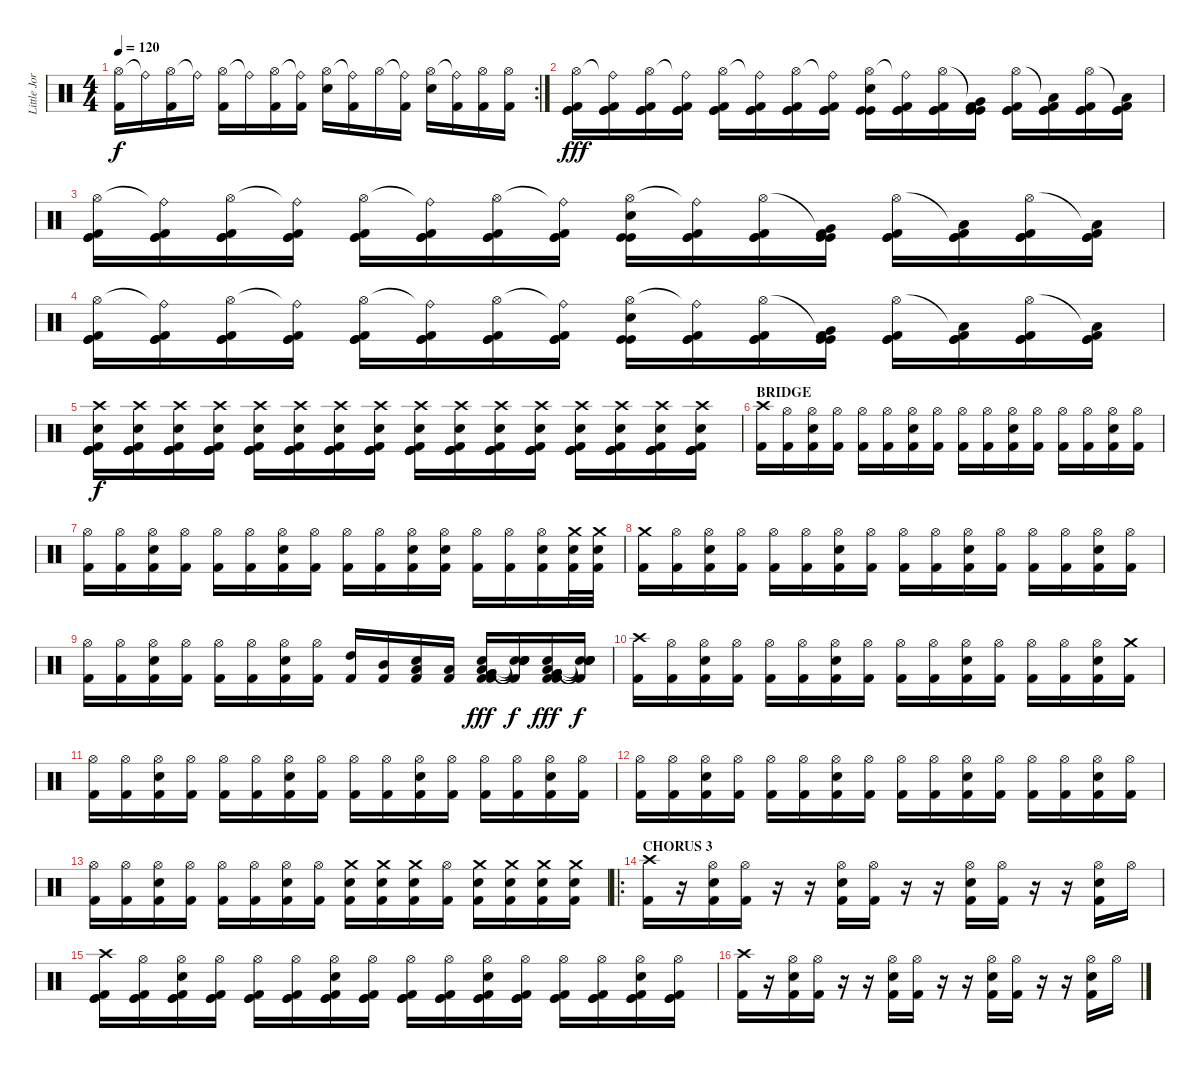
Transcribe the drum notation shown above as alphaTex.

\track ("Little Jordison" "Little Jor") {instrument percussion}
\staff {score}
\articulation defaults
\rc 2
\ts (4 4)
\tempo 120
\clef neutral
\ks c
("Hi-Hat (open)" "Kick (hit) 2").16{dy f} "Ride (bell)"{t}.16 ("Hi-Hat (open)" "Kick (hit) 2").16 "Ride (bell)"{t}.16 ("Hi-Hat (open)" "Kick (hit) 2").16 "Ride (bell)"{t}.16 ("Hi-Hat (open)" "Kick (hit) 2").16 ("Ride (bell)"{t} "Kick (hit) 2").16 ("Hi-Hat (open)" "Electric Snare (hit)").16 ("Ride (bell)"{t} "Kick (hit) 2").16 "Hi-Hat (open)".16 ("Ride (bell)"{t} "Kick (hit) 2").16 ("Hi-Hat (open)" "Electric Snare (hit)").16 ("Ride (bell)"{t} "Kick (hit) 2").16 ("Hi-Hat (open)" "Kick (hit) 2").16 ("Hi-Hat (open)" "Kick (hit) 2").16 |
("Kick (hit)" "Kick (hit)" "Hi-Hat (open)" "Kick (hit) 2").16{dy fff} ("Kick (hit)" "Kick (hit)" "Ride (bell)"{t} "Kick (hit) 2").16 ("Kick (hit)" "Kick (hit)" "Hi-Hat (open)" "Kick (hit) 2").16 ("Kick (hit)" "Kick (hit)" "Ride (bell)"{t} "Kick (hit) 2").16 ("Kick (hit)" "Kick (hit)" "Hi-Hat (open)" "Kick (hit) 2").16 ("Kick (hit)" "Kick (hit)" "Ride (bell)"{t} "Kick (hit) 2").16 ("Kick (hit)" "Kick (hit)" "Hi-Hat (open)" "Kick (hit) 2").16 ("Kick (hit)" "Kick (hit)" "Ride (bell)"{t} "Kick (hit) 2").16 ("Kick (hit)" "Kick (hit)" "Hi-Hat (open)" "Electric Snare (hit)").16 ("Kick (hit)" "Kick (hit)" "Ride (bell)"{t} "Kick (hit) 2").16 ("Kick (hit)" "Kick (hit)" "Hi-Hat (open)" "Kick (hit) 2").16 ("Kick (hit)" "Kick (hit)" "Very Low Tom (hit)"{t} "Kick (hit) 2").16 ("Kick (hit)" "Kick (hit)" "Hi-Hat (open)" "Kick (hit) 2").16 ("Kick (hit)" "Kick (hit)" "Low Tom (hit)"{t} "Kick (hit) 2").16 ("Kick (hit)" "Kick (hit)" "Hi-Hat (open)" "Kick (hit) 2").16 ("Kick (hit)" "Kick (hit)" "Low Floor Tom (hit)"{t} "Kick (hit) 2").16 |
("Kick (hit)" "Kick (hit)" "Hi-Hat (open)" "Kick (hit) 2").16 ("Kick (hit)" "Kick (hit)" "Ride (bell)"{t} "Kick (hit) 2").16 ("Kick (hit)" "Kick (hit)" "Hi-Hat (open)" "Kick (hit) 2").16 ("Kick (hit)" "Kick (hit)" "Ride (bell)"{t} "Kick (hit) 2").16 ("Kick (hit)" "Kick (hit)" "Hi-Hat (open)" "Kick (hit) 2").16 ("Kick (hit)" "Kick (hit)" "Ride (bell)"{t} "Kick (hit) 2").16 ("Kick (hit)" "Kick (hit)" "Hi-Hat (open)" "Kick (hit) 2").16 ("Kick (hit)" "Kick (hit)" "Ride (bell)"{t} "Kick (hit) 2").16 ("Kick (hit)" "Kick (hit)" "Hi-Hat (open)" "Electric Snare (hit)").16 ("Kick (hit)" "Kick (hit)" "Ride (bell)"{t} "Kick (hit) 2").16 ("Kick (hit)" "Kick (hit)" "Hi-Hat (open)" "Kick (hit) 2").16 ("Kick (hit)" "Kick (hit)" "Very Low Tom (hit)"{t} "Kick (hit) 2").16 ("Kick (hit)" "Kick (hit)" "Hi-Hat (open)" "Kick (hit) 2").16 ("Kick (hit)" "Kick (hit)" "Low Tom (hit)"{t} "Kick (hit) 2").16 ("Kick (hit)" "Kick (hit)" "Hi-Hat (open)" "Kick (hit) 2").16 ("Kick (hit)" "Kick (hit)" "Low Floor Tom (hit)"{t} "Kick (hit) 2").16 |
("Kick (hit)" "Kick (hit)" "Hi-Hat (open)" "Kick (hit) 2").16 ("Kick (hit)" "Kick (hit)" "Ride (bell)"{t} "Kick (hit) 2").16 ("Kick (hit)" "Kick (hit)" "Hi-Hat (open)" "Kick (hit) 2").16 ("Kick (hit)" "Kick (hit)" "Ride (bell)"{t} "Kick (hit) 2").16 ("Kick (hit)" "Kick (hit)" "Hi-Hat (open)" "Kick (hit) 2").16 ("Kick (hit)" "Kick (hit)" "Ride (bell)"{t} "Kick (hit) 2").16 ("Kick (hit)" "Kick (hit)" "Hi-Hat (open)" "Kick (hit) 2").16 ("Kick (hit)" "Kick (hit)" "Ride (bell)"{t} "Kick (hit) 2").16 ("Kick (hit)" "Kick (hit)" "Hi-Hat (open)" "Electric Snare (hit)").16 ("Kick (hit)" "Kick (hit)" "Ride (bell)"{t} "Kick (hit) 2").16 ("Kick (hit)" "Kick (hit)" "Hi-Hat (open)" "Kick (hit) 2").16 ("Kick (hit)" "Kick (hit)" "Very Low Tom (hit)"{t} "Kick (hit) 2").16 ("Kick (hit)" "Kick (hit)" "Hi-Hat (open)" "Kick (hit) 2").16 ("Kick (hit)" "Kick (hit)" "Low Tom (hit)"{t} "Kick (hit) 2").16 ("Kick (hit)" "Kick (hit)" "Hi-Hat (open)" "Kick (hit) 2").16 ("Kick (hit)" "Kick (hit)" "Low Floor Tom (hit)"{t} "Kick (hit) 2").16 |
("Kick (hit)" "Kick (hit)" "Kick (hit)" "Crash high (hit)" "Kick (hit) 2" "Electric Snare (hit)").16{dy f} ("Kick (hit)" "Kick (hit)" "Kick (hit)" "Crash high (hit)" "Kick (hit) 2" "Electric Snare (hit)").16 ("Kick (hit)" "Kick (hit)" "Kick (hit)" "Crash high (hit)" "Kick (hit) 2" "Electric Snare (hit)").16 ("Kick (hit)" "Kick (hit)" "Kick (hit)" "Crash high (hit)" "Kick (hit) 2" "Electric Snare (hit)").16 ("Kick (hit)" "Kick (hit)" "Kick (hit)" "Crash high (hit)" "Kick (hit) 2" "Electric Snare (hit)").16 ("Kick (hit)" "Kick (hit)" "Kick (hit)" "Crash high (hit)" "Kick (hit) 2" "Electric Snare (hit)").16 ("Kick (hit)" "Kick (hit)" "Kick (hit)" "Crash high (hit)" "Kick (hit) 2" "Electric Snare (hit)").16 ("Kick (hit)" "Kick (hit)" "Kick (hit)" "Crash high (hit)" "Kick (hit) 2" "Electric Snare (hit)").16 ("Kick (hit)" "Kick (hit)" "Kick (hit)" "Crash high (hit)" "Kick (hit) 2" "Electric Snare (hit)").16 ("Kick (hit)" "Kick (hit)" "Kick (hit)" "Crash high (hit)" "Kick (hit) 2" "Electric Snare (hit)").16 ("Kick (hit)" "Kick (hit)" "Kick (hit)" "Crash high (hit)" "Kick (hit) 2" "Electric Snare (hit)").16 ("Kick (hit)" "Kick (hit)" "Kick (hit)" "Crash high (hit)" "Kick (hit) 2" "Electric Snare (hit)").16 ("Kick (hit)" "Kick (hit)" "Kick (hit)" "Crash high (hit)" "Kick (hit) 2" "Electric Snare (hit)").16 ("Kick (hit)" "Kick (hit)" "Kick (hit)" "Crash high (hit)" "Kick (hit) 2" "Electric Snare (hit)").16 ("Kick (hit)" "Kick (hit)" "Kick (hit)" "Crash high (hit)" "Kick (hit) 2" "Electric Snare (hit)").16 ("Kick (hit)" "Kick (hit)" "Kick (hit)" "Crash high (hit)" "Kick (hit) 2" "Electric Snare (hit)").16 |
\section ("" "BRIDGE")
("Crash high (hit)" "Kick (hit) 2").16 ("Hi-Hat (open)" "Kick (hit) 2").16 ("Hi-Hat (open)" "Electric Snare (hit)" "Kick (hit) 2").16 ("Hi-Hat (open)" "Kick (hit) 2").16 ("Hi-Hat (open)" "Kick (hit) 2").16 ("Hi-Hat (open)" "Kick (hit) 2").16 ("Hi-Hat (open)" "Electric Snare (hit)" "Kick (hit) 2").16 ("Hi-Hat (open)" "Kick (hit) 2").16 ("Hi-Hat (open)" "Kick (hit) 2").16 ("Hi-Hat (open)" "Kick (hit) 2").16 ("Hi-Hat (open)" "Electric Snare (hit)" "Kick (hit) 2").16 ("Hi-Hat (open)" "Kick (hit) 2").16 ("Hi-Hat (open)" "Kick (hit) 2").16 ("Hi-Hat (open)" "Kick (hit) 2").16 ("Hi-Hat (open)" "Electric Snare (hit)" "Kick (hit) 2").16 ("Hi-Hat (open)" "Kick (hit) 2").16 |
("Hi-Hat (open)" "Kick (hit) 2").16 ("Hi-Hat (open)" "Kick (hit) 2").16 ("Hi-Hat (open)" "Electric Snare (hit)" "Kick (hit) 2").16 ("Hi-Hat (open)" "Kick (hit) 2").16 ("Hi-Hat (open)" "Kick (hit) 2").16 ("Hi-Hat (open)" "Kick (hit) 2").16 ("Hi-Hat (open)" "Electric Snare (hit)" "Kick (hit) 2").16 ("Hi-Hat (open)" "Kick (hit) 2").16 ("Hi-Hat (open)" "Kick (hit) 2").16 ("Hi-Hat (open)" "Kick (hit) 2").16 ("Hi-Hat (open)" "Electric Snare (hit)" "Kick (hit) 2").16 ("Hi-Hat (open)" "Electric Snare (hit)" "Kick (hit) 2").16 ("Hi-Hat (open)" "Kick (hit) 2").16 ("Hi-Hat (open)" "Kick (hit) 2").16 ("Hi-Hat (open)" "Electric Snare (hit)" "Kick (hit) 2").16 ("Crash medium (hit)" "Electric Snare (hit)" "Kick (hit) 2").32 ("Crash medium (hit)" "Electric Snare (hit)" "Kick (hit) 2").32 |
("Crash medium (hit)" "Kick (hit) 2").16 ("Hi-Hat (open)" "Kick (hit) 2").16 ("Hi-Hat (open)" "Electric Snare (hit)" "Kick (hit) 2").16 ("Hi-Hat (open)" "Kick (hit) 2").16 ("Hi-Hat (open)" "Kick (hit) 2").16 ("Hi-Hat (open)" "Kick (hit) 2").16 ("Hi-Hat (open)" "Electric Snare (hit)" "Kick (hit) 2").16 ("Hi-Hat (open)" "Kick (hit) 2").16 ("Hi-Hat (open)" "Kick (hit) 2").16 ("Hi-Hat (open)" "Kick (hit) 2").16 ("Hi-Hat (open)" "Electric Snare (hit)" "Kick (hit) 2").16 ("Hi-Hat (open)" "Kick (hit) 2").16 ("Hi-Hat (open)" "Kick (hit) 2").16 ("Hi-Hat (open)" "Kick (hit) 2").16 ("Hi-Hat (open)" "Electric Snare (hit)" "Kick (hit) 2").16 ("Hi-Hat (open)" "Kick (hit) 2").16 |
("Hi-Hat (open)" "Kick (hit) 2").16 ("Hi-Hat (open)" "Kick (hit) 2").16 ("Hi-Hat (open)" "Electric Snare (hit)" "Kick (hit) 2").16 ("Hi-Hat (open)" "Kick (hit) 2").16 ("Hi-Hat (open)" "Kick (hit) 2").16 ("Hi-Hat (open)" "Kick (hit) 2").16 ("Hi-Hat (open)" "Electric Snare (hit)" "Kick (hit) 2").16 ("Hi-Hat (open)" "Kick (hit) 2").16 ("High Tom (hit)" "Kick (hit) 2").16 ("Mid Tom (hit)" "Kick (hit) 2").16 ("Low Tom (hit)" "Electric Snare (hit)" "Kick (hit) 2").16 ("Low Tom (hit)" "Kick (hit) 2").16 ("Kick (hit) 2" "Very Low Tom (hit)" "Low Tom (hit)" "Very Low Tom (hit)" "Electric Snare (hit)" "Kick (hit) 2").16{dy fff} ("Snare (hit)"{t} "Snare (hit)"{t} "Snare (hit)"{t} "Snare (hit)"{t} "Kick (hit) 2"{t}).16{dy f} ("Kick (hit) 2" "Very Low Tom (hit)" "Low Tom (hit)" "Very Low Tom (hit)" "Electric Snare (hit)" "Kick (hit) 2").16{dy fff} ("Snare (hit)"{t} "Snare (hit)"{t} "Snare (hit)"{t} "Snare (hit)"{t} "Kick (hit) 2"{t}).16{dy f} |
("Crash high (hit)" "Kick (hit) 2").16 ("Hi-Hat (open)" "Kick (hit) 2").16 ("Hi-Hat (open)" "Electric Snare (hit)" "Kick (hit) 2").16 ("Hi-Hat (open)" "Kick (hit) 2").16 ("Hi-Hat (open)" "Kick (hit) 2").16 ("Hi-Hat (open)" "Kick (hit) 2").16 ("Hi-Hat (open)" "Electric Snare (hit)" "Kick (hit) 2").16 ("Hi-Hat (open)" "Kick (hit) 2").16 ("Hi-Hat (open)" "Kick (hit) 2").16 ("Hi-Hat (open)" "Kick (hit) 2").16 ("Hi-Hat (open)" "Electric Snare (hit)" "Kick (hit) 2").16 ("Hi-Hat (open)" "Kick (hit) 2").16 ("Hi-Hat (open)" "Kick (hit) 2").16 ("Hi-Hat (open)" "Kick (hit) 2").16 ("Hi-Hat (open)" "Electric Snare (hit)" "Kick (hit) 2").16 ("Crash medium (hit)" "Kick (hit) 2").16 |
("Hi-Hat (open)" "Kick (hit) 2").16 ("Hi-Hat (open)" "Kick (hit) 2").16 ("Hi-Hat (open)" "Electric Snare (hit)" "Kick (hit) 2").16 ("Hi-Hat (open)" "Kick (hit) 2").16 ("Hi-Hat (open)" "Kick (hit) 2").16 ("Hi-Hat (open)" "Kick (hit) 2").16 ("Hi-Hat (open)" "Electric Snare (hit)" "Kick (hit) 2").16 ("Hi-Hat (open)" "Kick (hit) 2").16 ("Hi-Hat (open)" "Kick (hit) 2").16 ("Hi-Hat (open)" "Kick (hit) 2").16 ("Hi-Hat (open)" "Electric Snare (hit)" "Kick (hit) 2").16 ("Hi-Hat (open)" "Kick (hit) 2").16 ("Hi-Hat (open)" "Kick (hit) 2").16 ("Hi-Hat (open)" "Kick (hit) 2").16 ("Hi-Hat (open)" "Electric Snare (hit)" "Kick (hit) 2").16 ("Hi-Hat (open)" "Kick (hit) 2").16 |
("Hi-Hat (open)" "Kick (hit) 2").16 ("Hi-Hat (open)" "Kick (hit) 2").16 ("Hi-Hat (open)" "Electric Snare (hit)" "Kick (hit) 2").16 ("Hi-Hat (open)" "Kick (hit) 2").16 ("Hi-Hat (open)" "Kick (hit) 2").16 ("Hi-Hat (open)" "Kick (hit) 2").16 ("Hi-Hat (open)" "Electric Snare (hit)" "Kick (hit) 2").16 ("Hi-Hat (open)" "Kick (hit) 2").16 ("Hi-Hat (open)" "Kick (hit) 2").16 ("Hi-Hat (open)" "Kick (hit) 2").16 ("Hi-Hat (open)" "Electric Snare (hit)" "Kick (hit) 2").16 ("Hi-Hat (open)" "Kick (hit) 2").16 ("Hi-Hat (open)" "Kick (hit) 2").16 ("Hi-Hat (open)" "Kick (hit) 2").16 ("Hi-Hat (open)" "Electric Snare (hit)" "Kick (hit) 2").16 ("Hi-Hat (open)" "Kick (hit) 2").16 |
("Hi-Hat (open)" "Kick (hit) 2").16 ("Hi-Hat (open)" "Kick (hit) 2").16 ("Hi-Hat (open)" "Electric Snare (hit)" "Kick (hit) 2").16 ("Hi-Hat (open)" "Kick (hit) 2").16 ("Hi-Hat (open)" "Kick (hit) 2").16 ("Hi-Hat (open)" "Kick (hit) 2").16 ("Hi-Hat (open)" "Electric Snare (hit)" "Kick (hit) 2").16 ("Hi-Hat (open)" "Kick (hit) 2").16 ("Crash medium (hit)" "Electric Snare (hit)" "Kick (hit) 2").16 ("Crash medium (hit)" "Electric Snare (hit)" "Kick (hit) 2").16 ("Crash medium (hit)" "Electric Snare (hit)" "Kick (hit) 2").16 ("Hi-Hat (open)" "Kick (hit) 2").16 ("Crash medium (hit)" "Electric Snare (hit)" "Kick (hit) 2").16 ("Crash medium (hit)" "Electric Snare (hit)" "Kick (hit) 2").16 ("Crash medium (hit)" "Electric Snare (hit)" "Kick (hit) 2").16 ("Crash medium (hit)" "Electric Snare (hit)" "Kick (hit) 2").16 |
\ro
\section ("" "CHORUS 3")
("Crash high (hit)" "Kick (hit) 2").16 r.16 ("Hi-Hat (open)" "Electric Snare (hit)" "Kick (hit) 2").16 ("Hi-Hat (open)" "Kick (hit) 2").16 r.16 r.16 ("Hi-Hat (open)" "Electric Snare (hit)" "Kick (hit) 2").16 ("Hi-Hat (open)" "Kick (hit) 2").16 r.16 r.16 ("Hi-Hat (open)" "Electric Snare (hit)" "Kick (hit) 2").16 ("Hi-Hat (open)" "Kick (hit) 2").16 r.16 r.16 ("Hi-Hat (open)" "Electric Snare (hit)" "Kick (hit) 2").16 "Hi-Hat (open)".16 |
("Crash high (hit)" "Kick (hit)" "Kick (hit)" "Kick (hit) 2").16 ("Hi-Hat (open)" "Kick (hit)" "Kick (hit)" "Kick (hit) 2").16 ("Hi-Hat (open)" "Kick (hit)" "Kick (hit)" "Electric Snare (hit)" "Kick (hit) 2").16 ("Hi-Hat (open)" "Kick (hit)" "Kick (hit)" "Kick (hit) 2").16 ("Hi-Hat (open)" "Kick (hit)" "Kick (hit)" "Kick (hit) 2").16 ("Hi-Hat (open)" "Kick (hit)" "Kick (hit)" "Kick (hit) 2").16 ("Hi-Hat (open)" "Kick (hit)" "Kick (hit)" "Electric Snare (hit)" "Kick (hit) 2").16 ("Hi-Hat (open)" "Kick (hit)" "Kick (hit)" "Kick (hit) 2").16 ("Hi-Hat (open)" "Kick (hit)" "Kick (hit)" "Kick (hit) 2").16 ("Hi-Hat (open)" "Kick (hit)" "Kick (hit)" "Kick (hit) 2").16 ("Hi-Hat (open)" "Kick (hit)" "Kick (hit)" "Electric Snare (hit)" "Kick (hit) 2").16 ("Hi-Hat (open)" "Kick (hit)" "Kick (hit)" "Kick (hit) 2").16 ("Hi-Hat (open)" "Kick (hit)" "Kick (hit)" "Kick (hit) 2").16 ("Hi-Hat (open)" "Kick (hit)" "Kick (hit)" "Kick (hit) 2").16 ("Hi-Hat (open)" "Kick (hit)" "Kick (hit)" "Electric Snare (hit)" "Kick (hit) 2").16 ("Hi-Hat (open)" "Kick (hit)" "Kick (hit)" "Kick (hit) 2").16 |
("Crash high (hit)" "Kick (hit) 2").16 r.16 ("Hi-Hat (open)" "Electric Snare (hit)" "Kick (hit) 2").16 ("Hi-Hat (open)" "Kick (hit) 2").16 r.16 r.16 ("Hi-Hat (open)" "Electric Snare (hit)" "Kick (hit) 2").16 ("Hi-Hat (open)" "Kick (hit) 2").16 r.16 r.16 ("Hi-Hat (open)" "Electric Snare (hit)" "Kick (hit) 2").16 ("Hi-Hat (open)" "Kick (hit) 2").16 r.16 r.16 ("Hi-Hat (open)" "Electric Snare (hit)" "Kick (hit) 2").16 "Hi-Hat (open)".16
